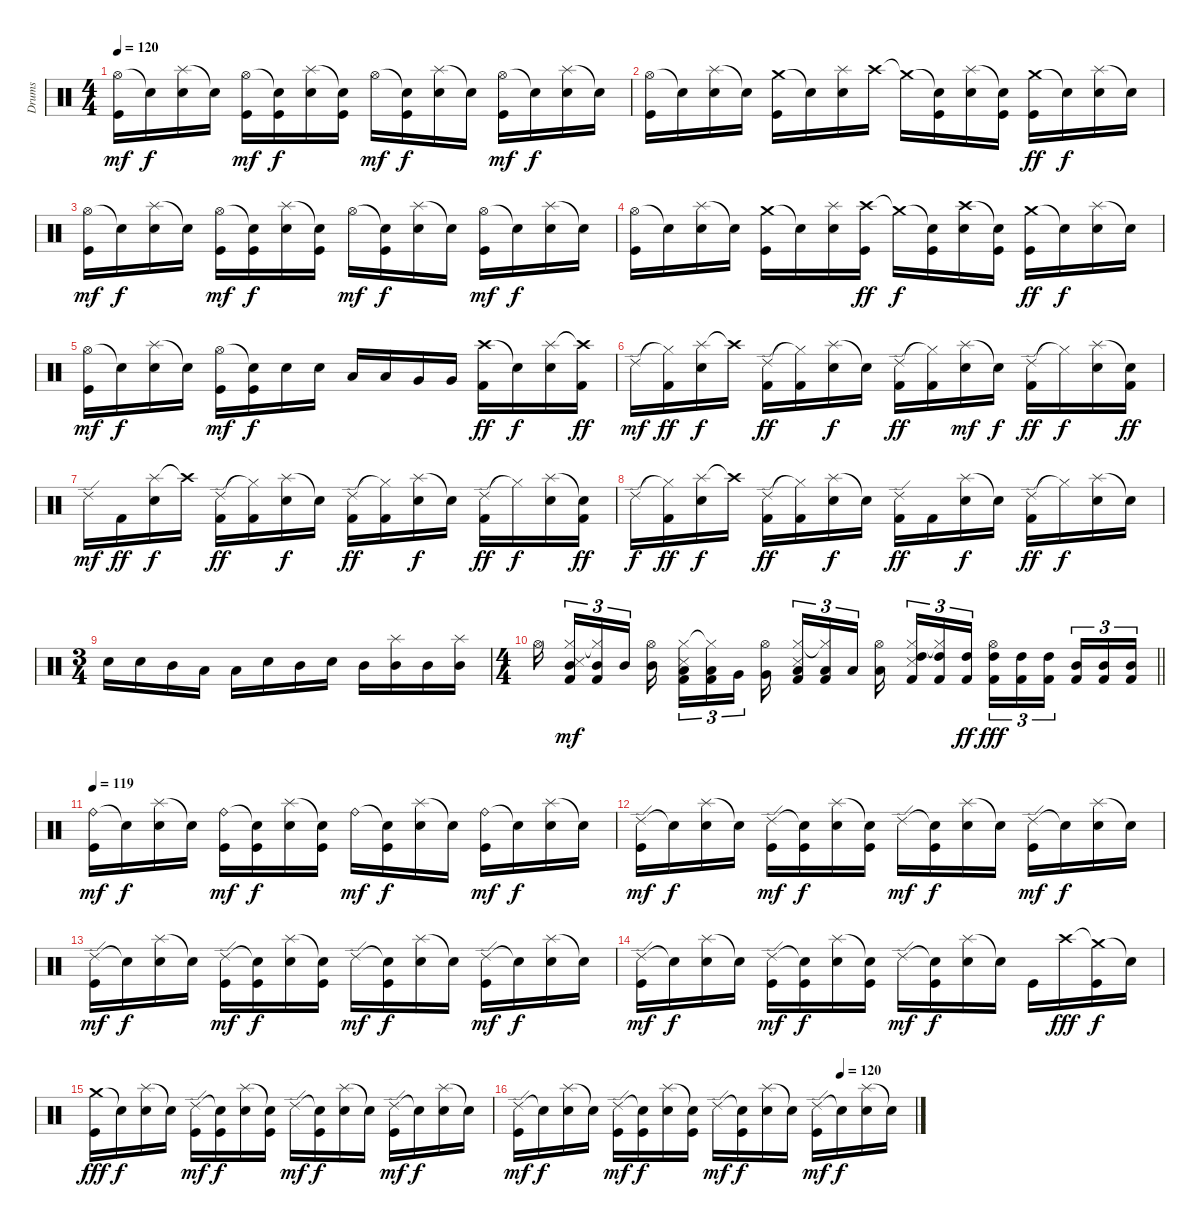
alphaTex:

\track ("Drums" "Drums") {instrument percussion}
\staff {score}
\articulation defaults
\ts (4 4)
\tempo 120
\clef neutral
\ks c
("Hi-Hat (open)" "Kick (hit)").16{dy mf} "Snare (hit)"{t}.16{dy f} ("Splash (hit)" "Electric Snare (hit)").16 "Snare (hit)"{t}.16 ("Hi-Hat (open)" "Kick (hit)").16{dy mf} ("Snare (hit)"{t} "Kick (hit)").16{dy f} ("Splash (hit)" "Electric Snare (hit)").16 ("Snare (hit)"{t} "Kick (hit)").16 "Hi-Hat (open)".16{dy mf} ("Snare (hit)"{t} "Kick (hit)").16{dy f} ("Splash (hit)" "Electric Snare (hit)").16 "Snare (hit)"{t}.16 ("Hi-Hat (open)" "Kick (hit)").16{dy mf} "Snare (hit)"{t}.16{dy f} ("Splash (hit)" "Electric Snare (hit)").16 "Snare (hit)"{t}.16 |
("Hi-Hat (open)" "Kick (hit)").16 "Snare (hit)"{t}.16 ("Splash (hit)" "Electric Snare (hit)").16 "Snare (hit)"{t}.16 ("Crash medium (hit)" "Kick (hit)").16 "Snare (hit)"{t}.16 ("Splash (hit)" "Electric Snare (hit)").16 "Crash high (hit)".16 "Crash medium (hit)"{t}.16 ("Snare (hit)"{t} "Kick (hit)").16 ("Splash (hit)" "Electric Snare (hit)").16 ("Snare (hit)"{t} "Kick (hit)").16 ("Crash medium (hit)" "Kick (hit)").16{dy ff} "Snare (hit)"{t}.16{dy f} ("Splash (hit)" "Electric Snare (hit)").16 "Snare (hit)"{t}.16 |
("Hi-Hat (open)" "Kick (hit)").16{dy mf} "Snare (hit)"{t}.16{dy f} ("Splash (hit)" "Electric Snare (hit)").16 "Snare (hit)"{t}.16 ("Hi-Hat (open)" "Kick (hit)").16{dy mf} ("Snare (hit)"{t} "Kick (hit)").16{dy f} ("Splash (hit)" "Electric Snare (hit)").16 ("Snare (hit)"{t} "Kick (hit)").16 "Hi-Hat (open)".16{dy mf} ("Snare (hit)"{t} "Kick (hit)").16{dy f} ("Splash (hit)" "Electric Snare (hit)").16 "Snare (hit)"{t}.16 ("Hi-Hat (open)" "Kick (hit)").16{dy mf} "Snare (hit)"{t}.16{dy f} ("Splash (hit)" "Electric Snare (hit)").16 "Snare (hit)"{t}.16 |
("Hi-Hat (open)" "Kick (hit)").16 "Snare (hit)"{t}.16 ("Splash (hit)" "Electric Snare (hit)").16 "Snare (hit)"{t}.16 ("Crash medium (hit)" "Kick (hit)").16 "Snare (hit)"{t}.16 ("Splash (hit)" "Electric Snare (hit)").16 ("Crash high (hit)" "Kick (hit)").16{dy ff} "Crash medium (hit)"{t}.16{dy f} ("Snare (hit)"{t} "Kick (hit)").16 ("Crash high (hit)" "Electric Snare (hit)").16 ("Snare (hit)"{t} "Kick (hit)").16 ("Crash medium (hit)" "Kick (hit)").16{dy ff} "Snare (hit)"{t}.16{dy f} ("Splash (hit)" "Electric Snare (hit)").16 "Snare (hit)"{t}.16 |
("Hi-Hat (open)" "Kick (hit)").16{dy mf} "Snare (hit)"{t}.16{dy f} ("Splash (hit)" "Electric Snare (hit)").16 "Snare (hit)"{t}.16 ("Hi-Hat (open)" "Kick (hit)").16{dy mf} ("Snare (hit)"{t} "Kick (hit)").16{dy f} "Snare (hit) 2".16 "Snare (hit) 2".16 "Low Tom (hit)".16 "Low Tom (hit)".16 "Very Low Tom (hit)".16 "Very Low Tom (hit)".16 ("Crash high (hit)" "Kick (hit) 2").16{dy ff} "Snare (hit)"{t}.16{dy f} ("Splash (hit)" "Electric Snare (hit)").16 ("Crash high (hit)"{t} "Kick (hit) 2").16{dy ff} |
"Ride (edge) 2".16{dy mf} ("Hi-Hat (closed)"{t} "Kick (hit) 2").16{dy ff} ("Splash (hit)" "Electric Snare (hit)").16{dy f} "Crash high (hit)"{t}.16 ("Ride (edge) 2" "Kick (hit) 2").16{dy ff} ("Hi-Hat (closed)"{t} "Kick (hit) 2").16 ("Splash (hit)" "Electric Snare (hit)").16{dy f} "Snare (hit)"{t}.16 ("Ride (edge) 2" "Kick (hit) 2").16{dy ff} ("Hi-Hat (closed)"{t} "Kick (hit) 2").16 ("Splash (hit)" "Electric Snare (hit)").16{dy mf} "Snare (hit)"{t}.16{dy f} ("Ride (edge) 2" "Kick (hit) 2").16{dy ff} "Hi-Hat (closed)"{t}.16{dy f} ("Splash (hit)" "Electric Snare (hit)").16 ("Snare (hit)"{t} "Kick (hit) 2").16{dy ff} |
"Ride (edge) 2".16{dy mf} "Kick (hit) 2".16{dy ff} ("Splash (hit)" "Electric Snare (hit)").16{dy f} "Crash high (hit)"{t}.16 ("Ride (edge) 2" "Kick (hit) 2").16{dy ff} ("Hi-Hat (closed)"{t} "Kick (hit) 2").16 ("Splash (hit)" "Electric Snare (hit)").16{dy f} "Snare (hit)"{t}.16 ("Ride (edge) 2" "Kick (hit) 2").16{dy ff} ("Hi-Hat (closed)"{t} "Kick (hit) 2").16 ("Splash (hit)" "Electric Snare (hit)").16{dy f} "Snare (hit)"{t}.16 ("Ride (edge) 2" "Kick (hit) 2").16{dy ff} "Hi-Hat (closed)"{t}.16{dy f} ("Splash (hit)" "Electric Snare (hit)").16 ("Snare (hit)"{t} "Kick (hit) 2").16{dy ff} |
"Ride (edge) 2".16{dy f} ("Hi-Hat (closed)"{t} "Kick (hit) 2").16{dy ff} ("Splash (hit)" "Electric Snare (hit)").16{dy f} "Crash high (hit)"{t}.16 ("Ride (edge) 2" "Kick (hit) 2").16{dy ff} ("Hi-Hat (closed)"{t} "Kick (hit) 2").16 ("Splash (hit)" "Electric Snare (hit)").16{dy f} "Snare (hit)"{t}.16 ("Ride (edge) 2" "Kick (hit) 2").16{dy ff} "Kick (hit) 2".16 ("Splash (hit)" "Electric Snare (hit)").16{dy f} "Snare (hit)"{t}.16 ("Ride (edge) 2" "Kick (hit) 2").16{dy ff} "Hi-Hat (closed)"{t}.16{dy f} ("Splash (hit)" "Electric Snare (hit)").16 "Snare (hit)"{t}.16 |
\ts (3 4)
"Snare (hit) 2".16 "Snare (hit) 2".16 "Mid Tom (hit)".16 "Low Tom (hit)".16 "Low Tom (hit)".16 "Snare (hit) 2".16 "Mid Tom (hit)".16 "Snare (hit) 2".16 "Mid Tom (hit)".16 ("Splash (hit)" "Mid Tom (hit)").16 "Mid Tom (hit)".16 ("Splash (hit)" "Mid Tom (hit)").16 |
\ts (4 4)
\barLineRight lightlight "Hi-Hat (open)".16{beam splitsecondary}
("Mid Tom (hit)" "Hi-Hat (closed)" "Metronome (hit)" "Kick (hit) 2").16{tu (3 2) dy mf} ("Mid Tom (hit)" "Hi-Hat (closed)"{t} "Kick (hit) 2").16{tu (3 2)} "Mid Tom (hit)".16{tu (3 2) beam splitsecondary} ("Mid Tom (hit)" "Hi-Hat (open)").16 ("Low Tom (hit)" "Hi-Hat (closed)" "Metronome (hit)" "Kick (hit) 2").16{tu (3 2)} ("Low Tom (hit)" "Hi-Hat (closed)"{t} "Kick (hit) 2").16{tu (3 2)} "Very Low Tom (hit)".16{tu (3 2) beam splitsecondary} ("Very Low Tom (hit)" "Hi-Hat (open)").16{beam splitsecondary} ("Low Floor Tom (hit)" "Hi-Hat (closed)" "Metronome (hit)" "Kick (hit) 2").16{tu (3 2)} ("Low Floor Tom (hit)" "Hi-Hat (closed)"{t} "Kick (hit) 2").16{tu (3 2)} "Low Floor Tom (hit)".16{tu (3 2) beam splitsecondary} ("Low Floor Tom (hit)" "Hi-Hat (open)").16{beam splitsecondary} ("High Tom (hit)" "Hi-Hat (closed)" "Metronome (hit)" "Kick (hit) 2").16{tu (3 2)} ("High Tom (hit)" "Hi-Hat (closed)"{t} "Kick (hit) 2").16{tu (3 2)} ("High Tom (hit)" "Kick (hit) 2").16{tu (3 2) dy ff} ("Hi-Hat (open)" "High Tom (hit)" "Kick (hit) 2").16{tu (3 2) dy fff} ("High Tom (hit)" "Kick (hit) 2").16{tu (3 2)} ("High Tom (hit)" "Kick (hit) 2").16{tu (3 2) beam splitsecondary} ("Mid Tom (hit)" "Kick (hit) 2").16{tu (3 2)} ("Mid Tom (hit)" "Kick (hit) 2").16{tu (3 2)} ("Mid Tom (hit)" "Kick (hit) 2").16{tu (3 2)} |
\section ("" "")
\tempo 119
("Ride (bell)" "Kick (hit)").16{dy mf} "Snare (hit)"{t}.16{dy f} ("Splash (hit)" "Electric Snare (hit)").16 "Snare (hit)"{t}.16 ("Ride (bell)" "Kick (hit)").16{dy mf} ("Snare (hit)"{t} "Kick (hit)").16{dy f} ("Splash (hit)" "Electric Snare (hit)").16 ("Snare (hit)"{t} "Kick (hit)").16 "Ride (bell)".16{dy mf} ("Snare (hit)"{t} "Kick (hit)").16{dy f} ("Splash (hit)" "Electric Snare (hit)").16 "Snare (hit)"{t}.16 ("Ride (bell)" "Kick (hit)").16{dy mf} "Snare (hit)"{t}.16{dy f} ("Splash (hit)" "Electric Snare (hit)").16 "Snare (hit)"{t}.16 |
("Ride (edge) 2" "Kick (hit)").16{dy mf} "Snare (hit)"{t}.16{dy f} ("Splash (hit)" "Electric Snare (hit)").16 "Snare (hit)"{t}.16 ("Ride (edge) 2" "Kick (hit)").16{dy mf} ("Snare (hit)"{t} "Kick (hit)").16{dy f} ("Splash (hit)" "Electric Snare (hit)").16 ("Snare (hit)"{t} "Kick (hit)").16 "Ride (edge) 2".16{dy mf} ("Snare (hit)"{t} "Kick (hit)").16{dy f} ("Splash (hit)" "Electric Snare (hit)").16 "Snare (hit)"{t}.16 ("Ride (edge) 2" "Kick (hit)").16{dy mf} "Snare (hit)"{t}.16{dy f} ("Splash (hit)" "Electric Snare (hit)").16 "Snare (hit)"{t}.16 |
("Ride (edge) 2" "Kick (hit)").16{dy mf} "Snare (hit)"{t}.16{dy f} ("Splash (hit)" "Electric Snare (hit)").16 "Snare (hit)"{t}.16 ("Ride (edge) 2" "Kick (hit)").16{dy mf} ("Snare (hit)"{t} "Kick (hit)").16{dy f} ("Splash (hit)" "Electric Snare (hit)").16 ("Snare (hit)"{t} "Kick (hit)").16 "Ride (edge) 2".16{dy mf} ("Snare (hit)"{t} "Kick (hit)").16{dy f} ("Splash (hit)" "Electric Snare (hit)").16 "Snare (hit)"{t}.16 ("Ride (edge) 2" "Kick (hit)").16{dy mf} "Snare (hit)"{t}.16{dy f} ("Splash (hit)" "Electric Snare (hit)").16 "Snare (hit)"{t}.16 |
("Ride (edge) 2" "Kick (hit)").16{dy mf} "Snare (hit)"{t}.16{dy f} ("Splash (hit)" "Electric Snare (hit)").16 "Snare (hit)"{t}.16 ("Ride (edge) 2" "Kick (hit)").16{dy mf} ("Snare (hit)"{t} "Kick (hit)").16{dy f} ("Splash (hit)" "Electric Snare (hit)").16 ("Snare (hit)"{t} "Kick (hit)").16 "Ride (edge) 2".16{dy mf} ("Snare (hit)"{t} "Kick (hit)").16{dy f} ("Splash (hit)" "Electric Snare (hit)").16 "Snare (hit)"{t}.16 "Kick (hit)".16 "Crash high (hit)".16{dy fff} ("Crash medium (hit)"{t} "Kick (hit)").16{dy f} "Snare (hit)"{t}.16 |
("Crash medium (hit)" "Kick (hit)").16{dy fff} "Snare (hit)"{t}.16{dy f} ("Splash (hit)" "Electric Snare (hit)").16 "Snare (hit)"{t}.16 ("Ride (edge) 2" "Kick (hit)").16{dy mf} ("Snare (hit)"{t} "Kick (hit)").16{dy f} ("Splash (hit)" "Electric Snare (hit)").16 ("Snare (hit)"{t} "Kick (hit)").16 "Ride (edge) 2".16{dy mf} ("Snare (hit)"{t} "Kick (hit)").16{dy f} ("Splash (hit)" "Electric Snare (hit)").16 "Snare (hit)"{t}.16 ("Ride (edge) 2" "Kick (hit)").16{dy mf} "Snare (hit)"{t}.16{dy f} ("Splash (hit)" "Electric Snare (hit)").16 "Snare (hit)"{t}.16 |
\tempo (120 0.8125)
("Ride (edge) 2" "Kick (hit)").16{dy mf} "Snare (hit)"{t}.16{dy f} ("Splash (hit)" "Electric Snare (hit)").16 "Snare (hit)"{t}.16 ("Ride (edge) 2" "Kick (hit)").16{dy mf} ("Snare (hit)"{t} "Kick (hit)").16{dy f} ("Splash (hit)" "Electric Snare (hit)").16 ("Snare (hit)"{t} "Kick (hit)").16 "Ride (edge) 2".16{dy mf} ("Snare (hit)"{t} "Kick (hit)").16{dy f} ("Splash (hit)" "Electric Snare (hit)").16 "Snare (hit)"{t}.16 ("Ride (edge) 2" "Kick (hit)").16{dy mf} "Snare (hit)"{t}.16{dy f} ("Splash (hit)" "Electric Snare (hit)").16 "Snare (hit)"{t}.16
